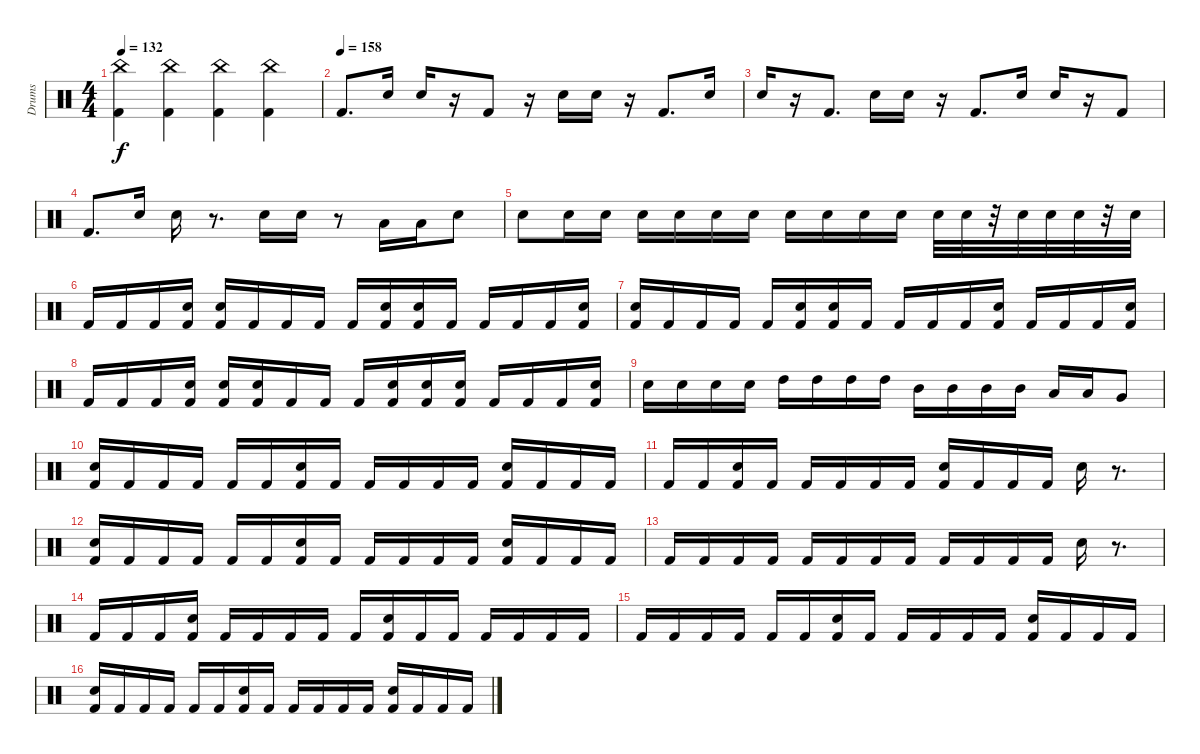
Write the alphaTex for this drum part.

\track ("Drums" "Drums") {instrument percussion}
\staff {score}
\articulation defaults
\ts (4 4)
\tempo 132
\clef neutral
\ks c
("Kick (hit) 2" "China (hit)").4{dy f} ("Kick (hit) 2" "China (hit)").4 ("Kick (hit) 2" "China (hit)").4 ("Kick (hit) 2" "China (hit)").4 |
\tempo (158)
"Kick (hit) 2".8{d} "Snare (hit) 2".16 "Snare (hit) 2".16 r.16 "Kick (hit) 2".8 r.16 "Snare (hit) 2".16 "Snare (hit) 2".16 r.16 "Kick (hit) 2".8{d} "Snare (hit) 2".16 |
"Snare (hit) 2".16 r.16 "Kick (hit) 2".8{d} "Snare (hit) 2".16 "Snare (hit) 2".16 r.16 "Kick (hit) 2".8{d} "Snare (hit) 2".16 "Snare (hit) 2".16 r.16 "Kick (hit) 2".8 |
"Kick (hit) 2".8{d} "Snare (hit) 2".16 "Snare (hit) 2".16 r.8{d} "Snare (hit) 2".16 "Snare (hit) 2".16 r.8 "Low Tom (hit)".16 "Low Tom (hit)".16 "Snare (hit) 2".8 |
"Snare (hit) 2".8 "Snare (hit) 2".16 "Snare (hit) 2".16 "Snare (hit) 2".16 "Snare (hit) 2".16 "Snare (hit) 2".16 "Snare (hit) 2".16 "Snare (hit) 2".16 "Snare (hit) 2".16 "Snare (hit) 2".16 "Snare (hit) 2".16 "Snare (hit) 2".32 "Snare (hit) 2".32 r.32 "Snare (hit) 2".32 "Snare (hit) 2".32 "Snare (hit) 2".32 r.32 "Snare (hit) 2".32 |
"Kick (hit) 2".16 "Kick (hit) 2".16 "Kick (hit) 2".16 ("Snare (hit) 2" "Kick (hit) 2").16 ("Snare (hit) 2" "Kick (hit) 2").16 "Kick (hit) 2".16 "Kick (hit) 2".16 "Kick (hit) 2".16 "Kick (hit) 2".16 ("Snare (hit) 2" "Kick (hit) 2").16 ("Snare (hit) 2" "Kick (hit) 2").16 "Kick (hit) 2".16 "Kick (hit) 2".16 "Kick (hit) 2".16 "Kick (hit) 2".16 ("Snare (hit) 2" "Kick (hit) 2").16 |
("Snare (hit) 2" "Kick (hit) 2").16 "Kick (hit) 2".16 "Kick (hit) 2".16 "Kick (hit) 2".16 "Kick (hit) 2".16 ("Snare (hit) 2" "Kick (hit) 2").16 ("Snare (hit) 2" "Kick (hit) 2").16 "Kick (hit) 2".16 "Kick (hit) 2".16 "Kick (hit) 2".16 "Kick (hit) 2".16 ("Snare (hit) 2" "Kick (hit) 2").16 "Kick (hit) 2".16 "Kick (hit) 2".16 "Kick (hit) 2".16 ("Snare (hit) 2" "Kick (hit) 2").16 |
"Kick (hit) 2".16 "Kick (hit) 2".16 "Kick (hit) 2".16 ("Snare (hit) 2" "Kick (hit) 2").16 ("Snare (hit) 2" "Kick (hit) 2").16 ("Snare (hit) 2" "Kick (hit) 2").16 "Kick (hit) 2".16 "Kick (hit) 2".16 "Kick (hit) 2".16 ("Snare (hit) 2" "Kick (hit) 2").16 ("Snare (hit) 2" "Kick (hit) 2").16 ("Snare (hit) 2" "Kick (hit) 2").16 "Kick (hit) 2".16 "Kick (hit) 2".16 "Kick (hit) 2".16 ("Snare (hit) 2" "Kick (hit) 2").16 |
"Snare (hit) 2".16 "Snare (hit) 2".16 "Snare (hit) 2".16 "Snare (hit) 2".16 "High Tom (hit)".16 "High Tom (hit)".16 "High Tom (hit)".16 "High Tom (hit)".16 "Mid Tom (hit)".16 "Mid Tom (hit)".16 "Mid Tom (hit)".16 "Mid Tom (hit)".16 "Low Tom (hit)".16 "Low Tom (hit)".16 "Very Low Tom (hit)".8 |
("Snare (hit) 2" "Kick (hit) 2").16 "Kick (hit) 2".16 "Kick (hit) 2".16 "Kick (hit) 2".16 "Kick (hit) 2".16 "Kick (hit) 2".16 ("Snare (hit) 2" "Kick (hit) 2").16 "Kick (hit) 2".16 "Kick (hit) 2".16 "Kick (hit) 2".16 "Kick (hit) 2".16 "Kick (hit) 2".16 ("Snare (hit) 2" "Kick (hit) 2").16 "Kick (hit) 2".16 "Kick (hit) 2".16 "Kick (hit) 2".16 |
"Kick (hit) 2".16 "Kick (hit) 2".16 ("Snare (hit) 2" "Kick (hit) 2").16 "Kick (hit) 2".16 "Kick (hit) 2".16 "Kick (hit) 2".16 "Kick (hit) 2".16 "Kick (hit) 2".16 ("Snare (hit) 2" "Kick (hit) 2").16 "Kick (hit) 2".16 "Kick (hit) 2".16 "Kick (hit) 2".16 "Snare (hit) 2".16 r.8{d} |
("Snare (hit) 2" "Kick (hit) 2").16 "Kick (hit) 2".16 "Kick (hit) 2".16 "Kick (hit) 2".16 "Kick (hit) 2".16 "Kick (hit) 2".16 ("Snare (hit) 2" "Kick (hit) 2").16 "Kick (hit) 2".16 "Kick (hit) 2".16 "Kick (hit) 2".16 "Kick (hit) 2".16 "Kick (hit) 2".16 ("Snare (hit) 2" "Kick (hit) 2").16 "Kick (hit) 2".16 "Kick (hit) 2".16 "Kick (hit) 2".16 |
"Kick (hit) 2".16 "Kick (hit) 2".16 "Kick (hit) 2".16 "Kick (hit) 2".16 "Kick (hit) 2".16 "Kick (hit) 2".16 "Kick (hit) 2".16 "Kick (hit) 2".16 "Kick (hit) 2".16 "Kick (hit) 2".16 "Kick (hit) 2".16 "Kick (hit) 2".16 "Snare (hit) 2".16 r.8{d} |
"Kick (hit) 2".16 "Kick (hit) 2".16 "Kick (hit) 2".16 ("Snare (hit) 2" "Kick (hit) 2").16 "Kick (hit) 2".16 "Kick (hit) 2".16 "Kick (hit) 2".16 "Kick (hit) 2".16 "Kick (hit) 2".16 ("Snare (hit) 2" "Kick (hit) 2").16 "Kick (hit) 2".16 "Kick (hit) 2".16 "Kick (hit) 2".16 "Kick (hit) 2".16 "Kick (hit) 2".16 "Kick (hit) 2".16 |
"Kick (hit) 2".16 "Kick (hit) 2".16 "Kick (hit) 2".16 "Kick (hit) 2".16 "Kick (hit) 2".16 "Kick (hit) 2".16 ("Snare (hit) 2" "Kick (hit) 2").16 "Kick (hit) 2".16 "Kick (hit) 2".16 "Kick (hit) 2".16 "Kick (hit) 2".16 "Kick (hit) 2".16 ("Snare (hit) 2" "Kick (hit) 2").16 "Kick (hit) 2".16 "Kick (hit) 2".16 "Kick (hit) 2".16 |
("Snare (hit) 2" "Kick (hit) 2").16 "Kick (hit) 2".16 "Kick (hit) 2".16 "Kick (hit) 2".16 "Kick (hit) 2".16 "Kick (hit) 2".16 ("Snare (hit) 2" "Kick (hit) 2").16 "Kick (hit) 2".16 "Kick (hit) 2".16 "Kick (hit) 2".16 "Kick (hit) 2".16 "Kick (hit) 2".16 ("Snare (hit) 2" "Kick (hit) 2").16 "Kick (hit) 2".16 "Kick (hit) 2".16 "Kick (hit) 2".16
